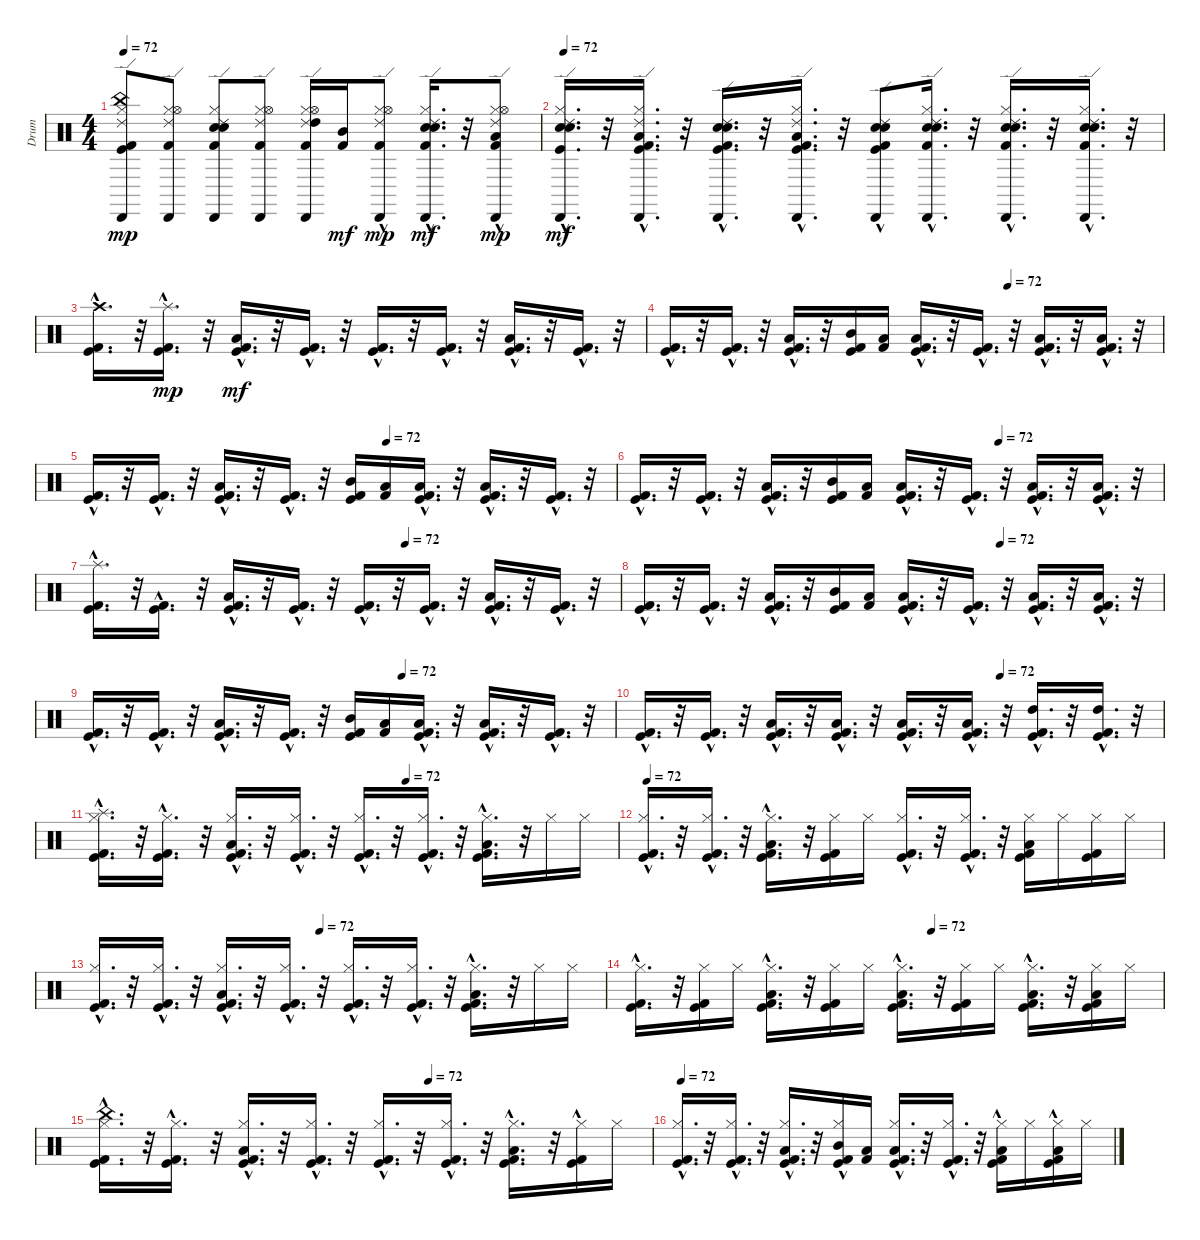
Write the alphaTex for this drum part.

\track ("Drum" "Drum") {instrument percussion}
\staff {score}
\articulation defaults
\ts (4 4)
\tempo 72
\clef neutral
\ks c
("China (hit)" "Cabasa (hit)" "Kick (hit) 2" "Hi-Hat (closed)" "Kick (hit)" "Ride (edge) 2").8{dy mp} ("Cabasa (hit)" "Ride (edge) 2" "Hi-Hat (closed)" "Kick (hit) 2" "Hi-Hat (open)").8 ("Cabasa (hit)" "Hi-Hat (closed)" "Electric Snare (hit)" "Snare (hit) 2" "Kick (hit) 2" "Ride (edge) 2").8 ("Cabasa (hit)" "Kick (hit) 2" "Ride (edge) 2" "Hi-Hat (closed)" "Hi-Hat (open)").8 ("Hi-Hat (closed)" "Ride (edge) 2" "Kick (hit) 2" "High Tom (hit)" "Cabasa (hit)" "Hi-Hat (open)").16 ("Kick (hit) 2" "Mid Tom (hit)").16{dy mf} ("Kick (hit) 2"{hac} "Hi-Hat (closed)"{hac} "Ride (edge) 2"{hac} "Cabasa (hit)"{hac} "Hi-Hat (open)").8{dy mp} ("Snare (hit) 2"{hac} "Electric Snare (hit)"{hac} "Kick (hit) 2"{hac} "Hi-Hat (closed)"{hac} "Ride (edge) 2"{hac} "Cabasa (hit)"{hac}).16{d dy mf} r.32 ("Low Tom (hit)"{hac} "Kick (hit) 2"{hac} "Hi-Hat (closed)"{hac} "Ride (edge) 2"{hac} "Cabasa (hit)"{hac} "Hi-Hat (open)").8{dy mp} |
\tempo 72
("Electric Snare (hit)"{hac} "Snare (hit) 2"{hac} "Hi-Hat (closed)"{hac} "Cabasa (hit)"{hac} "Ride (edge) 2"{hac} "Kick (hit)"{hac}).16{d dy mf} r.32 ("Low Tom (hit)"{hac} "Hi-Hat (closed)"{hac} "Cabasa (hit)"{hac} "Ride (edge) 2"{hac} "Kick (hit)"{hac} "Kick (hit) 2"{hac}).16{d} r.32 ("Cabasa (hit)"{hac} "Ride (edge) 2"{hac} "Kick (hit) 2"{hac} "Kick (hit)"{hac} "Electric Snare (hit)"{hac} "Snare (hit) 2"{hac}).16{d} r.32 ("Low Tom (hit)"{hac} "Cabasa (hit)"{hac} "Ride (edge) 2"{hac} "Kick (hit) 2"{hac} "Kick (hit)"{hac} "Hi-Hat (closed)"{hac}).16{d} r.32 ("Cabasa (hit)"{hac} "Ride (edge) 2"{hac} "Kick (hit) 2"{hac} "Kick (hit)"{hac} "Electric Snare (hit)"{hac} "Snare (hit) 2"{hac}).8 ("Snare (hit) 2"{hac} "Electric Snare (hit)"{hac} "Hi-Hat (closed)"{hac} "Cabasa (hit)"{hac} "Ride (edge) 2"{hac} "Kick (hit) 2"{hac}).16{d} r.32 ("Hi-Hat (closed)"{hac} "Cabasa (hit)"{hac} "Snare (hit) 2"{hac} "Electric Snare (hit)"{hac} "Ride (edge) 2"{hac} "Kick (hit) 2"{hac}).16{d} r.32 ("Hi-Hat (closed)"{hac} "Cabasa (hit)"{hac} "Snare (hit) 2"{hac} "Electric Snare (hit)"{hac} "Ride (edge) 2"{hac} "Kick (hit) 2"{hac}).16{d} r.32 |
("Kick (hit)"{hac} "Crash high (hit)"{hac} "Kick (hit) 2"{hac}).16{d} r.32 ("Kick (hit)"{hac} "Kick (hit) 2"{hac} "Splash (hit)"{hac}).16{d dy mp} r.32 ("Kick (hit)"{hac} "Low Tom (hit)"{hac} "Kick (hit) 2"{hac}).16{d dy mf} r.32 ("Kick (hit)"{hac} "Kick (hit) 2"{hac}).16{d} r.32 ("Kick (hit)"{hac} "Kick (hit) 2"{hac}).16{d} r.32 ("Kick (hit)"{hac} "Kick (hit) 2"{hac}).16{d} r.32 ("Kick (hit)"{hac} "Low Tom (hit)"{hac} "Kick (hit) 2"{hac}).16{d} r.32 ("Kick (hit)"{hac} "Kick (hit) 2"{hac}).16{d} r.32 |
\tempo (72 0.6875)
("Kick (hit)"{hac} "Kick (hit) 2"{hac}).16{d} r.32 ("Kick (hit) 2"{hac} "Kick (hit)"{hac}).16{d} r.32 ("Kick (hit) 2"{hac} "Kick (hit)"{hac} "Low Tom (hit)"{hac}).16{d} r.32 ("Mid Tom (hit)" "Kick (hit) 2" "Kick (hit)").16 ("Kick (hit) 2" "Low Tom (hit)").16 ("Low Floor Tom (hit)"{hac} "Kick (hit)"{hac} "Kick (hit) 2"{hac}).16{d} r.32 ("Kick (hit) 2"{hac} "Kick (hit)"{hac}).16{d} r.32 ("Kick (hit)"{hac} "Kick (hit) 2"{hac} "Low Tom (hit)"{hac}).16{d} r.32 ("Low Tom (hit)"{hac} "Kick (hit)"{hac} "Kick (hit) 2"{hac}).16{d} r.32 |
\tempo (72 0.5625)
("Kick (hit)"{hac} "Kick (hit) 2"{hac}).16{d} r.32 ("Kick (hit) 2"{hac} "Kick (hit)"{hac}).16{d} r.32 ("Kick (hit) 2"{hac} "Kick (hit)"{hac} "Low Tom (hit)"{hac}).16{d} r.32 ("Kick (hit) 2"{hac} "Kick (hit)"{hac}).16{d} r.32 ("Mid Tom (hit)" "Kick (hit) 2" "Kick (hit)").16 ("Low Tom (hit)" "Kick (hit) 2").16 ("Low Floor Tom (hit)"{hac} "Kick (hit) 2"{hac} "Kick (hit)"{hac}).16{d} r.32 ("Kick (hit)"{hac} "Low Tom (hit)"{hac} "Kick (hit) 2"{hac}).16{d} r.32 ("Kick (hit)"{hac} "Kick (hit) 2"{hac}).16{d} r.32 |
\tempo (72 0.6875)
("Kick (hit) 2"{hac} "Kick (hit)"{hac}).16{d} r.32 ("Kick (hit)"{hac} "Kick (hit) 2"{hac}).16{d} r.32 ("Low Tom (hit)"{hac} "Kick (hit)"{hac} "Kick (hit) 2"{hac}).16{d} r.32 ("Kick (hit)" "Kick (hit) 2" "Mid Tom (hit)").16 ("Low Tom (hit)" "Kick (hit) 2").16 ("Kick (hit) 2"{hac} "Kick (hit)"{hac} "Low Floor Tom (hit)"{hac}).16{d} r.32 ("Kick (hit)"{hac} "Kick (hit) 2"{hac}).16{d} r.32 ("Low Tom (hit)"{hac} "Kick (hit) 2"{hac} "Kick (hit)"{hac}).16{d} r.32 ("Kick (hit) 2"{hac} "Kick (hit)"{hac} "Low Tom (hit)"{hac}).16{d} r.32 |
\tempo (72 0.59375)
("Kick (hit) 2"{hac} "Splash (hit)"{hac} "Kick (hit)"{hac}).16{d} r.32 ("Kick (hit) 2"{hac} "Kick (hit)"{hac}).16{d} r.32 ("Kick (hit) 2"{hac} "Low Tom (hit)"{hac} "Kick (hit)"{hac}).16{d} r.32 ("Kick (hit) 2"{hac} "Kick (hit)"{hac}).16{d} r.32 ("Kick (hit) 2"{hac} "Kick (hit)"{hac}).16{d} r.32 ("Kick (hit) 2"{hac} "Kick (hit)"{hac}).16{d} r.32 ("Kick (hit) 2"{hac} "Low Tom (hit)"{hac} "Kick (hit)"{hac}).16{d} r.32 ("Kick (hit) 2"{hac} "Kick (hit)"{hac}).16{d} r.32 |
\tempo (72 0.6875)
("Kick (hit) 2"{hac} "Kick (hit)"{hac}).16{d} r.32 ("Kick (hit)"{hac} "Kick (hit) 2"{hac}).16{d} r.32 ("Kick (hit) 2"{hac} "Low Tom (hit)"{hac} "Kick (hit)"{hac}).16{d} r.32 ("Kick (hit)" "Mid Tom (hit)" "Kick (hit) 2").16 ("Low Tom (hit)" "Kick (hit) 2").16 ("Kick (hit) 2"{hac} "Kick (hit)"{hac} "Low Floor Tom (hit)"{hac}).16{d} r.32 ("Kick (hit)"{hac} "Kick (hit) 2"{hac}).16{d} r.32 ("Low Tom (hit)"{hac} "Kick (hit) 2"{hac} "Kick (hit)"{hac}).16{d} r.32 ("Kick (hit) 2"{hac} "Low Tom (hit)"{hac} "Kick (hit)"{hac}).16{d} r.32 |
\tempo (72 0.59375)
("Kick (hit) 2"{hac} "Kick (hit)"{hac}).16{d} r.32 ("Kick (hit) 2"{hac} "Kick (hit)"{hac}).16{d} r.32 ("Low Tom (hit)"{hac} "Kick (hit) 2"{hac} "Kick (hit)"{hac}).16{d} r.32 ("Kick (hit) 2"{hac} "Kick (hit)"{hac}).16{d} r.32 ("Mid Tom (hit)" "Kick (hit)" "Kick (hit) 2").16 ("Kick (hit) 2" "Low Tom (hit)").16 ("Kick (hit) 2"{hac} "Low Floor Tom (hit)"{hac} "Kick (hit)"{hac}).16{d} r.32 ("Low Tom (hit)"{hac} "Kick (hit) 2"{hac} "Kick (hit)"{hac}).16{d} r.32 ("Kick (hit) 2"{hac} "Kick (hit)"{hac}).16{d} r.32 |
\tempo (72 0.6875)
("Kick (hit)"{hac} "Kick (hit) 2"{hac}).16{d} r.32 ("Kick (hit)"{hac} "Kick (hit) 2"{hac}).16{d} r.32 ("Kick (hit)"{hac} "Kick (hit) 2"{hac} "Low Tom (hit)"{hac}).16{d} r.32 ("Kick (hit)"{hac} "Kick (hit) 2"{hac} "Low Floor Tom (hit)"{hac}).16{d} r.32 ("Kick (hit)"{hac} "Kick (hit) 2"{hac} "Low Tom (hit)"{hac}).16{d} r.32 ("Kick (hit)"{hac} "Kick (hit) 2"{hac} "Low Floor Tom (hit)"{hac}).16{d} r.32 ("High Tom (hit)"{hac} "Kick (hit)"{hac} "Kick (hit) 2"{hac}).16{d} r.32 ("High Tom (hit)"{hac} "Kick (hit) 2"{hac} "Kick (hit)"{hac}).16{d} r.32 |
\tempo (72 0.59375)
("Kick (hit)"{hac} "Splash (hit)"{hac} "Kick (hit) 2"{hac} "Hi-Hat (closed)"{hac}).16{d} r.32 ("Kick (hit)"{hac} "Kick (hit) 2"{hac} "Hi-Hat (closed)"{hac}).16{d} r.32 ("Kick (hit)"{hac} "Low Tom (hit)"{hac} "Kick (hit) 2"{hac} "Hi-Hat (closed)"{hac}).16{d} r.32 ("Kick (hit)"{hac} "Kick (hit) 2"{hac} "Hi-Hat (closed)"{hac}).16{d} r.32 ("Kick (hit)"{hac} "Kick (hit) 2"{hac} "Hi-Hat (closed)"{hac}).16{d} r.32 ("Kick (hit)"{hac} "Kick (hit) 2"{hac} "Hi-Hat (closed)"{hac}).16{d} r.32 ("Kick (hit)"{hac} "Low Tom (hit)"{hac} "Kick (hit) 2"{hac} "Hi-Hat (closed)"{hac}).16{d} r.32 "Hi-Hat (closed)".16 "Hi-Hat (closed)".16 |
\tempo 72
("Hi-Hat (closed)"{hac} "Kick (hit) 2"{hac} "Kick (hit)"{hac}).16{d} r.32 ("Hi-Hat (closed)"{hac} "Kick (hit) 2"{hac} "Kick (hit)"{hac}).16{d} r.32 ("Kick (hit) 2"{hac} "Hi-Hat (closed)"{hac} "Low Tom (hit)"{hac} "Kick (hit)"{hac}).16{d} r.32 ("Hi-Hat (closed)" "Kick (hit) 2" "Kick (hit)").16 "Hi-Hat (closed)".16 ("Hi-Hat (closed)"{hac} "Kick (hit) 2"{hac} "Kick (hit)"{hac}).16{d} r.32 ("Hi-Hat (closed)"{hac} "Kick (hit) 2"{hac} "Kick (hit)"{hac}).16{d} r.32 ("Hi-Hat (closed)" "Kick (hit) 2" "Kick (hit)" "Low Tom (hit)").16 "Hi-Hat (closed)".16 ("Hi-Hat (closed)" "Kick (hit) 2" "Kick (hit)").16 "Hi-Hat (closed)".16 |
\tempo (72 0.4375)
("Hi-Hat (closed)"{hac} "Kick (hit) 2"{hac} "Kick (hit)"{hac}).16{d} r.32 ("Hi-Hat (closed)"{hac} "Kick (hit) 2"{hac} "Kick (hit)"{hac}).16{d} r.32 ("Hi-Hat (closed)"{hac} "Kick (hit) 2"{hac} "Low Tom (hit)"{hac} "Kick (hit)"{hac}).16{d} r.32 ("Hi-Hat (closed)"{hac} "Kick (hit) 2"{hac} "Kick (hit)"{hac}).16{d} r.32 ("Hi-Hat (closed)"{hac} "Kick (hit) 2"{hac} "Kick (hit)"{hac}).16{d} r.32 ("Hi-Hat (closed)"{hac} "Kick (hit) 2"{hac} "Kick (hit)"{hac}).16{d} r.32 ("Hi-Hat (closed)"{hac} "Kick (hit) 2"{hac} "Low Tom (hit)"{hac} "Kick (hit)"{hac}).16{d} r.32 "Hi-Hat (closed)".16 "Hi-Hat (closed)".16 |
\tempo (72 0.5625)
("Kick (hit) 2"{hac} "Kick (hit)"{hac} "Hi-Hat (closed)"{hac}).16{d} r.32 ("Hi-Hat (closed)" "Kick (hit)" "Kick (hit) 2").16 "Hi-Hat (closed)".16 ("Low Tom (hit)"{hac} "Hi-Hat (closed)"{hac} "Kick (hit) 2"{hac} "Kick (hit)"{hac}).16{d} r.32 ("Hi-Hat (closed)" "Kick (hit)" "Kick (hit) 2").16 "Hi-Hat (closed)".16 ("Low Tom (hit)"{hac} "Kick (hit) 2"{hac} "Hi-Hat (closed)"{hac} "Kick (hit)"{hac}).16{d} r.32 ("Hi-Hat (closed)" "Kick (hit)" "Kick (hit) 2").16 "Hi-Hat (closed)".16 ("Low Tom (hit)"{hac} "Hi-Hat (closed)"{hac} "Kick (hit)"{hac} "Kick (hit) 2"{hac}).16{d} r.32 ("Low Tom (hit)" "Hi-Hat (closed)" "Kick (hit)" "Kick (hit) 2").16 "Hi-Hat (closed)".16 |
\tempo (72 0.59375)
("Hi-Hat (closed)"{hac} "Kick (hit)"{hac} "Kick (hit) 2"{hac} "China (hit)"{hac}).16{d} r.32 ("Hi-Hat (closed)"{hac} "Kick (hit)"{hac} "Kick (hit) 2"{hac}).16{d} r.32 ("Hi-Hat (closed)"{hac} "Kick (hit)"{hac} "Low Tom (hit)"{hac} "Kick (hit) 2"{hac}).16{d} r.32 ("Hi-Hat (closed)"{hac} "Kick (hit)"{hac} "Kick (hit) 2"{hac}).16{d} r.32 ("Hi-Hat (closed)"{hac} "Kick (hit)"{hac} "Kick (hit) 2"{hac}).16{d} r.32 ("Hi-Hat (closed)"{hac} "Kick (hit)"{hac} "Kick (hit) 2"{hac}).16{d} r.32 ("Hi-Hat (closed)"{hac} "Kick (hit)"{hac} "Low Tom (hit)"{hac} "Kick (hit) 2"{hac}).16{d} r.32 ("Hi-Hat (closed)" "Kick (hit)"{hac} "Kick (hit) 2"{hac}).16 "Hi-Hat (closed)".16 |
\tempo 72
("Hi-Hat (closed)"{hac} "Kick (hit)"{hac} "Kick (hit) 2"{hac}).16{d} r.32 ("Hi-Hat (closed)"{hac} "Kick (hit) 2"{hac} "Kick (hit)"{hac}).16{d} r.32 ("Hi-Hat (closed)"{hac} "Kick (hit)"{hac} "Low Tom (hit)"{hac} "Kick (hit) 2"{hac}).16{d} r.32 ("Hi-Hat (closed)"{hac} "Kick (hit) 2" "Mid Tom (hit)" "Kick (hit)").16 ("Kick (hit) 2" "Low Tom (hit)").16 ("Hi-Hat (closed)"{hac} "Low Floor Tom (hit)"{hac} "Kick (hit)"{hac} "Kick (hit) 2"{hac}).16{d} r.32 ("Hi-Hat (closed)"{hac} "Kick (hit) 2"{hac} "Kick (hit)"{hac}).16{d} r.32 ("Hi-Hat (closed)" "Kick (hit)"{hac} "Kick (hit) 2"{hac} "Low Tom (hit)"{hac}).16 "Hi-Hat (closed)".16 ("Hi-Hat (closed)" "Kick (hit)"{hac} "Low Tom (hit)"{hac} "Kick (hit) 2"{hac}).16 "Hi-Hat (closed)".16
